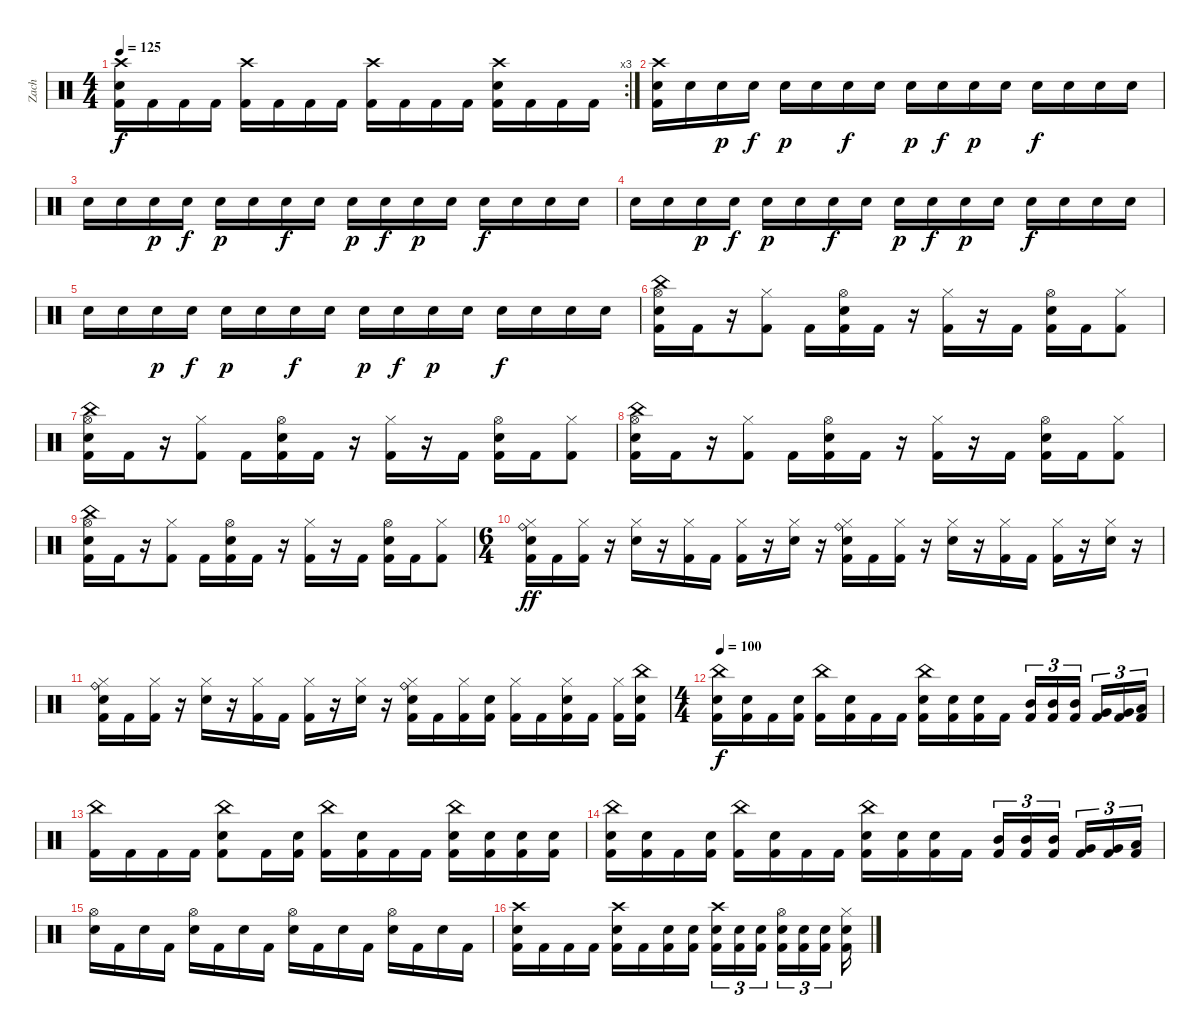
\track ("Zach" "Zach") {instrument percussion}
\staff {score}
\articulation defaults
\rc 3
\ts (4 4)
\tempo 125
\clef neutral
\ks c
("Crash high (hit)" "Electric Snare (hit)" "Kick (hit) 2").16{dy f} "Kick (hit) 2".16 "Kick (hit) 2".16 "Kick (hit) 2".16 ("Crash high (hit)" "Kick (hit) 2").16 "Kick (hit) 2".16 "Kick (hit) 2".16 "Kick (hit) 2".16 ("Crash high (hit)" "Kick (hit) 2").16 "Kick (hit) 2".16 "Kick (hit) 2".16 "Kick (hit) 2".16 ("Crash high (hit)" "Electric Snare (hit)" "Kick (hit) 2").16 "Kick (hit) 2".16 "Kick (hit) 2".16 "Kick (hit) 2".16 |
("Crash high (hit)" "Electric Snare (hit)" "Kick (hit) 2").16 "Electric Snare (hit)".16 "Electric Snare (hit)".16{dy p} "Electric Snare (hit)".16{dy f} "Electric Snare (hit)".16{dy p} "Electric Snare (hit)".16 "Electric Snare (hit)".16{dy f} "Electric Snare (hit)".16 "Electric Snare (hit)".16{dy p} "Electric Snare (hit)".16{dy f} "Electric Snare (hit)".16{dy p} "Electric Snare (hit)".16 "Electric Snare (hit)".16{dy f} "Electric Snare (hit)".16 "Electric Snare (hit)".16 "Electric Snare (hit)".16 |
"Electric Snare (hit)".16 "Electric Snare (hit)".16 "Electric Snare (hit)".16{dy p} "Electric Snare (hit)".16{dy f} "Electric Snare (hit)".16{dy p} "Electric Snare (hit)".16 "Electric Snare (hit)".16{dy f} "Electric Snare (hit)".16 "Electric Snare (hit)".16{dy p} "Electric Snare (hit)".16{dy f} "Electric Snare (hit)".16{dy p} "Electric Snare (hit)".16 "Electric Snare (hit)".16{dy f} "Electric Snare (hit)".16 "Electric Snare (hit)".16 "Electric Snare (hit)".16 |
"Electric Snare (hit)".16 "Electric Snare (hit)".16 "Electric Snare (hit)".16{dy p} "Electric Snare (hit)".16{dy f} "Electric Snare (hit)".16{dy p} "Electric Snare (hit)".16 "Electric Snare (hit)".16{dy f} "Electric Snare (hit)".16 "Electric Snare (hit)".16{dy p} "Electric Snare (hit)".16{dy f} "Electric Snare (hit)".16{dy p} "Electric Snare (hit)".16 "Electric Snare (hit)".16{dy f} "Electric Snare (hit)".16 "Electric Snare (hit)".16 "Electric Snare (hit)".16 |
"Electric Snare (hit)".16 "Electric Snare (hit)".16 "Electric Snare (hit)".16{dy p} "Electric Snare (hit)".16{dy f} "Electric Snare (hit)".16{dy p} "Electric Snare (hit)".16 "Electric Snare (hit)".16{dy f} "Electric Snare (hit)".16 "Electric Snare (hit)".16{dy p} "Electric Snare (hit)".16{dy f} "Electric Snare (hit)".16{dy p} "Electric Snare (hit)".16 "Electric Snare (hit)".16{dy f} "Electric Snare (hit)".16 "Electric Snare (hit)".16 "Electric Snare (hit)".16 |
("China (hit)" "Hi-Hat (open)" "Electric Snare (hit)" "Kick (hit) 2").16 "Kick (hit) 2".16 r.16 ("Hi-Hat (closed)" "Kick (hit) 2").8 "Kick (hit) 2".16 ("Hi-Hat (open)" "Electric Snare (hit)" "Kick (hit) 2").16 "Kick (hit) 2".16 r.16 ("Hi-Hat (closed)" "Kick (hit) 2").16 r.16 "Kick (hit) 2".16 ("Hi-Hat (open)" "Electric Snare (hit)" "Kick (hit) 2").16 "Kick (hit) 2".16 ("Hi-Hat (closed)" "Kick (hit) 2").8 |
("China (hit)" "Hi-Hat (open)" "Electric Snare (hit)" "Kick (hit) 2").16 "Kick (hit) 2".16 r.16 ("Hi-Hat (closed)" "Kick (hit) 2").8 "Kick (hit) 2".16 ("Hi-Hat (open)" "Electric Snare (hit)" "Kick (hit) 2").16 "Kick (hit) 2".16 r.16 ("Hi-Hat (closed)" "Kick (hit) 2").16 r.16 "Kick (hit) 2".16 ("Hi-Hat (open)" "Electric Snare (hit)" "Kick (hit) 2").16 "Kick (hit) 2".16 ("Hi-Hat (closed)" "Kick (hit) 2").8 |
("China (hit)" "Hi-Hat (open)" "Electric Snare (hit)" "Kick (hit) 2").16 "Kick (hit) 2".16 r.16 ("Hi-Hat (closed)" "Kick (hit) 2").8 "Kick (hit) 2".16 ("Hi-Hat (open)" "Electric Snare (hit)" "Kick (hit) 2").16 "Kick (hit) 2".16 r.16 ("Hi-Hat (closed)" "Kick (hit) 2").16 r.16 "Kick (hit) 2".16 ("Hi-Hat (open)" "Electric Snare (hit)" "Kick (hit) 2").16 "Kick (hit) 2".16 ("Hi-Hat (closed)" "Kick (hit) 2").8 |
("China (hit)" "Hi-Hat (open)" "Electric Snare (hit)" "Kick (hit) 2").16 "Kick (hit) 2".16 r.16 ("Hi-Hat (closed)" "Kick (hit) 2").8 "Kick (hit) 2".16 ("Hi-Hat (open)" "Electric Snare (hit)" "Kick (hit) 2").16 "Kick (hit) 2".16 r.16 ("Hi-Hat (closed)" "Kick (hit) 2").16 r.16 "Kick (hit) 2".16 ("Hi-Hat (open)" "Electric Snare (hit)" "Kick (hit) 2").16 "Kick (hit) 2".16 ("Hi-Hat (closed)" "Kick (hit) 2").8 |
\ts (6 4)
("Ride (bell)" "Hi-Hat (closed)" "Electric Snare (hit)" "Kick (hit) 2").16{dy ff} "Kick (hit) 2".16 ("Hi-Hat (closed)" "Kick (hit) 2").16 r.16 ("Hi-Hat (closed)" "Electric Snare (hit)").16 r.16 ("Hi-Hat (closed)" "Kick (hit) 2").16 "Kick (hit) 2".16 ("Hi-Hat (closed)" "Kick (hit) 2").16 r.16 ("Hi-Hat (closed)" "Electric Snare (hit)").16 r.16 ("Ride (bell)" "Hi-Hat (closed)" "Electric Snare (hit)" "Kick (hit) 2").16 "Kick (hit) 2".16 ("Hi-Hat (closed)" "Kick (hit) 2").16 r.16 ("Hi-Hat (closed)" "Electric Snare (hit)").16 r.16 ("Hi-Hat (closed)" "Kick (hit) 2").16 "Kick (hit) 2".16 ("Hi-Hat (closed)" "Kick (hit) 2").16 r.16 ("Hi-Hat (closed)" "Electric Snare (hit)").16 r.16 |
("Ride (bell)" "Hi-Hat (closed)" "Electric Snare (hit)" "Kick (hit) 2").16 "Kick (hit) 2".16 ("Hi-Hat (closed)" "Kick (hit) 2").16 r.16 ("Hi-Hat (closed)" "Electric Snare (hit)").16 r.16 ("Hi-Hat (closed)" "Kick (hit) 2").16 "Kick (hit) 2".16 ("Hi-Hat (closed)" "Kick (hit) 2").16 r.16 ("Hi-Hat (closed)" "Electric Snare (hit)").16 r.16 ("Ride (bell)" "Hi-Hat (closed)" "Electric Snare (hit)" "Kick (hit) 2").16 "Kick (hit) 2".16 ("Hi-Hat (closed)" "Kick (hit) 2").16 ("Electric Snare (hit)" "Kick (hit) 2").16 ("Hi-Hat (closed)" "Kick (hit) 2").16 "Kick (hit) 2".16 ("Hi-Hat (closed)" "Electric Snare (hit)" "Kick (hit) 2").16 "Kick (hit) 2".16 ("Hi-Hat (closed)" "Kick (hit) 2").16 ("China (hit)" "Electric Snare (hit)" "Kick (hit) 2").16 |
\ts (4 4)
\tempo 100
("China (hit)" "Electric Snare (hit)" "Kick (hit) 2").16{dy f} ("Electric Snare (hit)" "Kick (hit) 2").16 "Kick (hit) 2".16 ("Electric Snare (hit)" "Kick (hit) 2").16 ("China (hit)" "Kick (hit) 2").16 ("Electric Snare (hit)" "Kick (hit) 2").16 "Kick (hit) 2".16 "Kick (hit) 2".16 ("China (hit)" "Electric Snare (hit)" "Kick (hit) 2").16 ("Electric Snare (hit)" "Kick (hit) 2").16 ("Electric Snare (hit)" "Kick (hit) 2").16 "Kick (hit) 2".16 ("Mid Tom (hit)" "Kick (hit) 2").16{tu (3 2)} ("Mid Tom (hit)" "Kick (hit) 2").16{tu (3 2)} ("Mid Tom (hit)" "Kick (hit) 2").16{tu (3 2) beam splitsecondary} ("Very Low Tom (hit)" "Kick (hit) 2").16{tu (3 2)} ("Very Low Tom (hit)" "Kick (hit) 2").16{tu (3 2)} ("Low Floor Tom (hit)" "Kick (hit) 2").16{tu (3 2)} |
("China (hit)" "Kick (hit) 2").16 "Kick (hit) 2".16 "Kick (hit) 2".16 "Kick (hit) 2".16 ("China (hit)" "Electric Snare (hit)" "Kick (hit) 2").8 "Kick (hit) 2".16 ("Electric Snare (hit)" "Kick (hit) 2").16 ("China (hit)" "Kick (hit) 2").16 ("Electric Snare (hit)" "Kick (hit) 2").16 "Kick (hit) 2".16 "Kick (hit) 2".16 ("China (hit)" "Electric Snare (hit)" "Kick (hit) 2").16 ("Electric Snare (hit)" "Kick (hit) 2").16 ("Electric Snare (hit)" "Kick (hit) 2").16 ("Electric Snare (hit)" "Kick (hit) 2").16 |
("China (hit)" "Electric Snare (hit)" "Kick (hit) 2").16 ("Electric Snare (hit)" "Kick (hit) 2").16 "Kick (hit) 2".16 ("Electric Snare (hit)" "Kick (hit) 2").16 ("China (hit)" "Kick (hit) 2").16 ("Electric Snare (hit)" "Kick (hit) 2").16 "Kick (hit) 2".16 "Kick (hit) 2".16 ("China (hit)" "Electric Snare (hit)" "Kick (hit) 2").16 ("Electric Snare (hit)" "Kick (hit) 2").16 ("Electric Snare (hit)" "Kick (hit) 2").16 "Kick (hit) 2".16 ("Mid Tom (hit)" "Kick (hit) 2").16{tu (3 2)} ("Mid Tom (hit)" "Kick (hit) 2").16{tu (3 2)} ("Mid Tom (hit)" "Kick (hit) 2").16{tu (3 2) beam splitsecondary} ("Very Low Tom (hit)" "Kick (hit) 2").16{tu (3 2)} ("Very Low Tom (hit)" "Kick (hit) 2").16{tu (3 2)} ("Low Floor Tom (hit)" "Kick (hit) 2").16{tu (3 2)} |
("Hi-Hat (open)" "Electric Snare (hit)").16 "Kick (hit) 2".16 "Electric Snare (hit)".16 "Kick (hit) 2".16 ("Hi-Hat (open)" "Electric Snare (hit)").16 "Kick (hit) 2".16 "Electric Snare (hit)".16 "Kick (hit) 2".16 ("Hi-Hat (open)" "Electric Snare (hit)").16 "Kick (hit) 2".16 "Electric Snare (hit)".16 "Kick (hit) 2".16 ("Hi-Hat (open)" "Electric Snare (hit)").16 "Kick (hit) 2".16 "Electric Snare (hit)".16 "Kick (hit) 2".16 |
("Crash high (hit)" "Electric Snare (hit)" "Kick (hit) 2").16 "Kick (hit) 2".16 "Kick (hit) 2".16 "Kick (hit) 2".16 ("Crash high (hit)" "Electric Snare (hit)" "Kick (hit) 2").16 "Kick (hit) 2".16 ("Electric Snare (hit)" "Kick (hit) 2").16 ("Electric Snare (hit)" "Kick (hit) 2").16 ("Crash high (hit)" "Electric Snare (hit)" "Kick (hit) 2").16{tu (3 2)} ("Electric Snare (hit)" "Kick (hit) 2").16{tu (3 2)} ("Electric Snare (hit)" "Kick (hit) 2").16{tu (3 2) beam splitsecondary} ("Hi-Hat (open)" "Electric Snare (hit)" "Kick (hit) 2").16{tu (3 2)} ("Electric Snare (hit)" "Kick (hit) 2").16{tu (3 2)} ("Electric Snare (hit)" "Kick (hit) 2").16{tu (3 2)} ("Hi-Hat (closed)" "Electric Snare (hit)" "Kick (hit) 2").16
